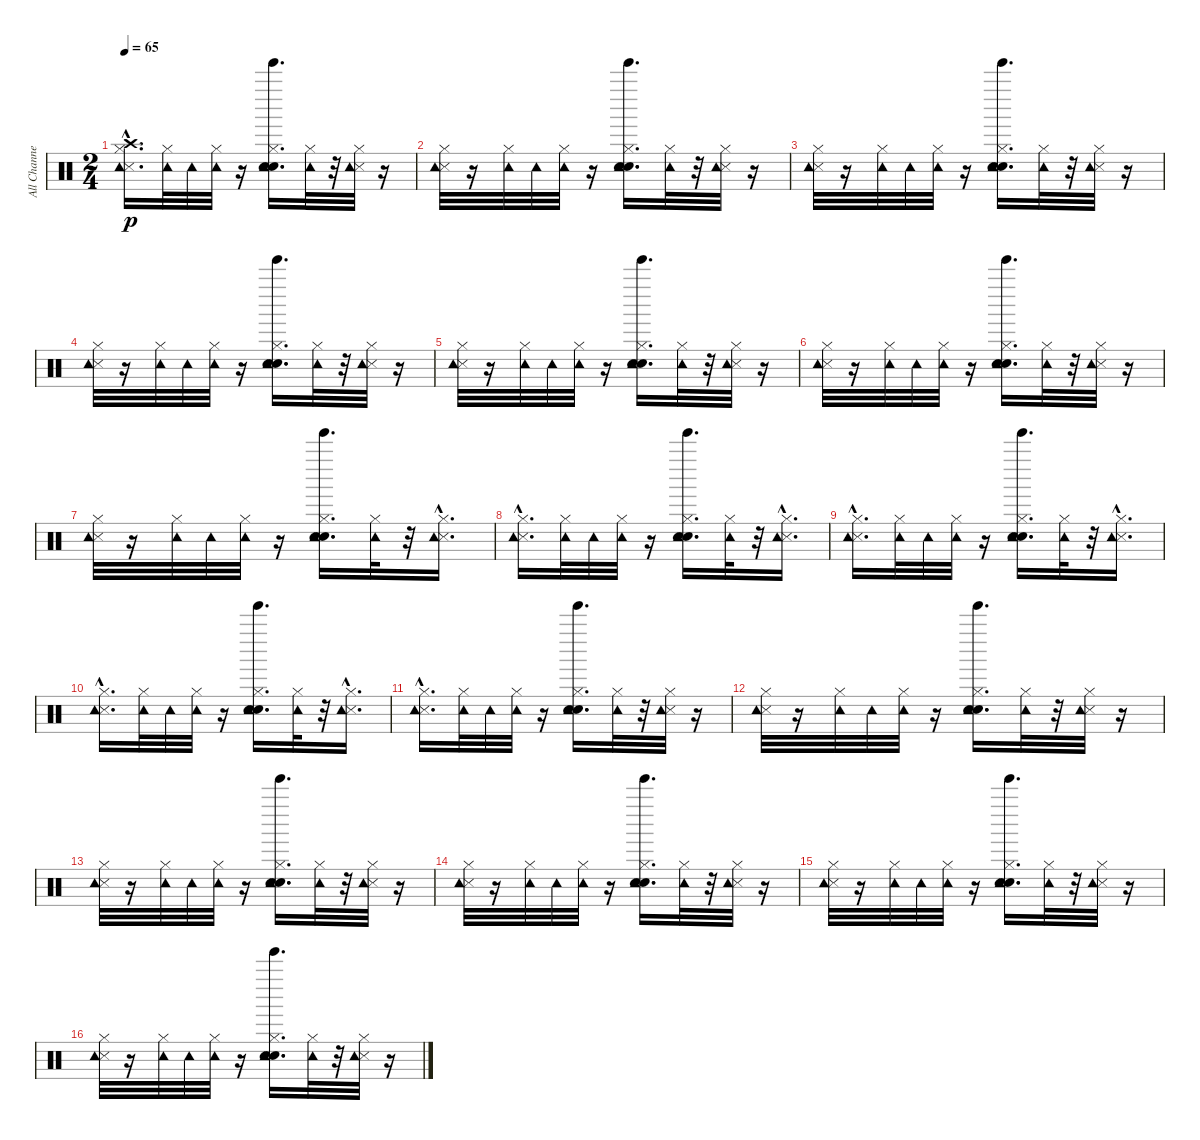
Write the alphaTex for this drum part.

\track ("All Channels*merged" "All Channe") {instrument percussion}
\staff {score}
\articulation defaults
\ts (2 4)
\tempo 65
\clef neutral
\ks c
("Metronome (hit)"{hac} "Hi-Hat (closed)" "Crash high (hit)" "Tambourine (hit)").16{d dy p} ("Hi-Hat (closed)" "Tambourine (hit)").32 "Tambourine (hit)".32 ("Hi-Hat (closed)" "Tambourine (hit)").32 r.16 ("Metronome (bell)" "Electric Snare (hit)" "Hi-Hat (closed)" "Tambourine (hit)" "Tinkle Bell (hit)").16{d} ("Hi-Hat (closed)" "Tambourine (hit)").32 r.32 ("Metronome (hit)" "Hi-Hat (closed)" "Tambourine (hit)").32 r.16 |
("Metronome (hit)" "Hi-Hat (closed)" "Tambourine (hit)").32 r.16 ("Hi-Hat (closed)" "Tambourine (hit)").32 "Tambourine (hit)".32 ("Hi-Hat (closed)" "Tambourine (hit)").32 r.16 ("Metronome (bell)" "Electric Snare (hit)" "Hi-Hat (closed)" "Tambourine (hit)" "Tinkle Bell (hit)").16{d} ("Hi-Hat (closed)" "Tambourine (hit)").32 r.32 ("Metronome (hit)" "Hi-Hat (closed)" "Tambourine (hit)").32 r.16 |
("Metronome (hit)" "Hi-Hat (closed)" "Tambourine (hit)").32 r.16 ("Hi-Hat (closed)" "Tambourine (hit)").32 "Tambourine (hit)".32 ("Hi-Hat (closed)" "Tambourine (hit)").32 r.16 ("Metronome (bell)" "Electric Snare (hit)" "Hi-Hat (closed)" "Tambourine (hit)" "Tinkle Bell (hit)").16{d} ("Hi-Hat (closed)" "Tambourine (hit)").32 r.32 ("Metronome (hit)" "Hi-Hat (closed)" "Tambourine (hit)").32 r.16 |
("Metronome (hit)" "Hi-Hat (closed)" "Tambourine (hit)").32 r.16 ("Hi-Hat (closed)" "Tambourine (hit)").32 "Tambourine (hit)".32 ("Hi-Hat (closed)" "Tambourine (hit)").32 r.16 ("Metronome (bell)" "Electric Snare (hit)" "Hi-Hat (closed)" "Tambourine (hit)" "Tinkle Bell (hit)").16{d} ("Hi-Hat (closed)" "Tambourine (hit)").32 r.32 ("Metronome (hit)" "Hi-Hat (closed)" "Tambourine (hit)").32 r.16 |
("Metronome (hit)" "Hi-Hat (closed)" "Tambourine (hit)").32 r.16 ("Hi-Hat (closed)" "Tambourine (hit)").32 "Tambourine (hit)".32 ("Hi-Hat (closed)" "Tambourine (hit)").32 r.16 ("Metronome (bell)" "Electric Snare (hit)" "Hi-Hat (closed)" "Tambourine (hit)" "Tinkle Bell (hit)").16{d} ("Hi-Hat (closed)" "Tambourine (hit)").32 r.32 ("Metronome (hit)" "Hi-Hat (closed)" "Tambourine (hit)").32 r.16 |
("Metronome (hit)" "Hi-Hat (closed)" "Tambourine (hit)").32 r.16 ("Hi-Hat (closed)" "Tambourine (hit)").32 "Tambourine (hit)".32 ("Hi-Hat (closed)" "Tambourine (hit)").32 r.16 ("Metronome (bell)" "Electric Snare (hit)" "Hi-Hat (closed)" "Tambourine (hit)" "Tinkle Bell (hit)").16{d} ("Hi-Hat (closed)" "Tambourine (hit)").32 r.32 ("Metronome (hit)" "Hi-Hat (closed)" "Tambourine (hit)").32 r.16 |
("Metronome (hit)" "Hi-Hat (closed)" "Tambourine (hit)").32 r.16 ("Hi-Hat (closed)" "Tambourine (hit)").32 "Tambourine (hit)".32 ("Hi-Hat (closed)" "Tambourine (hit)").32 r.16 ("Metronome (bell)" "Electric Snare (hit)" "Hi-Hat (closed)" "Tambourine (hit)" "Tinkle Bell (hit)").16{d} ("Hi-Hat (closed)" "Tambourine (hit)").32 r.32 ("Metronome (hit)" "Hi-Hat (closed)"{hac} "Tambourine (hit)").16{d} |
("Metronome (hit)" "Hi-Hat (closed)"{hac} "Tambourine (hit)").16{d} ("Hi-Hat (closed)" "Tambourine (hit)").32 "Tambourine (hit)".32 ("Hi-Hat (closed)" "Tambourine (hit)").32 r.16 ("Metronome (bell)" "Electric Snare (hit)" "Hi-Hat (closed)" "Tambourine (hit)" "Tinkle Bell (hit)").16{d} ("Hi-Hat (closed)" "Tambourine (hit)").32 r.32 ("Metronome (hit)"{hac} "Hi-Hat (closed)" "Tambourine (hit)").16{d} |
("Metronome (hit)"{hac} "Hi-Hat (closed)" "Tambourine (hit)").16{d} ("Hi-Hat (closed)" "Tambourine (hit)").32 "Tambourine (hit)".32 ("Hi-Hat (closed)" "Tambourine (hit)").32 r.16 ("Metronome (bell)" "Electric Snare (hit)" "Hi-Hat (closed)" "Tambourine (hit)" "Tinkle Bell (hit)").16{d} ("Hi-Hat (closed)" "Tambourine (hit)").32 r.32 ("Metronome (hit)" "Hi-Hat (closed)"{hac} "Tambourine (hit)").16{d} |
("Metronome (hit)" "Hi-Hat (closed)"{hac} "Tambourine (hit)").16{d} ("Hi-Hat (closed)" "Tambourine (hit)").32 "Tambourine (hit)".32 ("Hi-Hat (closed)" "Tambourine (hit)").32 r.16 ("Metronome (bell)" "Electric Snare (hit)" "Hi-Hat (closed)" "Tambourine (hit)" "Tinkle Bell (hit)").16{d} ("Hi-Hat (closed)" "Tambourine (hit)").32 r.32 ("Metronome (hit)" "Hi-Hat (closed)"{hac} "Tambourine (hit)").16{d} |
("Metronome (hit)" "Hi-Hat (closed)"{hac} "Tambourine (hit)").16{d} ("Hi-Hat (closed)" "Tambourine (hit)").32 "Tambourine (hit)".32 ("Hi-Hat (closed)" "Tambourine (hit)").32 r.16 ("Metronome (bell)" "Electric Snare (hit)" "Hi-Hat (closed)" "Tambourine (hit)" "Tinkle Bell (hit)").16{d} ("Hi-Hat (closed)" "Tambourine (hit)").32 r.32 ("Metronome (hit)" "Hi-Hat (closed)" "Tambourine (hit)").32 r.16 |
("Metronome (hit)" "Hi-Hat (closed)" "Tambourine (hit)").32 r.16 ("Hi-Hat (closed)" "Tambourine (hit)").32 "Tambourine (hit)".32 ("Hi-Hat (closed)" "Tambourine (hit)").32 r.16 ("Metronome (bell)" "Electric Snare (hit)" "Hi-Hat (closed)" "Tambourine (hit)" "Tinkle Bell (hit)").16{d} ("Hi-Hat (closed)" "Tambourine (hit)").32 r.32 ("Metronome (hit)" "Hi-Hat (closed)" "Tambourine (hit)").32 r.16 |
("Metronome (hit)" "Hi-Hat (closed)" "Tambourine (hit)").32 r.16 ("Hi-Hat (closed)" "Tambourine (hit)").32 "Tambourine (hit)".32 ("Hi-Hat (closed)" "Tambourine (hit)").32 r.16 ("Metronome (bell)" "Electric Snare (hit)" "Hi-Hat (closed)" "Tambourine (hit)" "Tinkle Bell (hit)").16{d} ("Hi-Hat (closed)" "Tambourine (hit)").32 r.32 ("Metronome (hit)" "Hi-Hat (closed)" "Tambourine (hit)").32 r.16 |
("Metronome (hit)" "Hi-Hat (closed)" "Tambourine (hit)").32 r.16 ("Hi-Hat (closed)" "Tambourine (hit)").32 "Tambourine (hit)".32 ("Hi-Hat (closed)" "Tambourine (hit)").32 r.16 ("Metronome (bell)" "Electric Snare (hit)" "Hi-Hat (closed)" "Tambourine (hit)" "Tinkle Bell (hit)").16{d} ("Hi-Hat (closed)" "Tambourine (hit)").32 r.32 ("Metronome (hit)" "Hi-Hat (closed)" "Tambourine (hit)").32 r.16 |
("Metronome (hit)" "Hi-Hat (closed)" "Tambourine (hit)").32 r.16 ("Hi-Hat (closed)" "Tambourine (hit)").32 "Tambourine (hit)".32 ("Hi-Hat (closed)" "Tambourine (hit)").32 r.16 ("Metronome (bell)" "Electric Snare (hit)" "Hi-Hat (closed)" "Tambourine (hit)" "Tinkle Bell (hit)").16{d} ("Hi-Hat (closed)" "Tambourine (hit)").32 r.32 ("Metronome (hit)" "Hi-Hat (closed)" "Tambourine (hit)").32 r.16 |
("Metronome (hit)" "Hi-Hat (closed)" "Tambourine (hit)").32 r.16 ("Hi-Hat (closed)" "Tambourine (hit)").32 "Tambourine (hit)".32 ("Hi-Hat (closed)" "Tambourine (hit)").32 r.16 ("Metronome (bell)" "Electric Snare (hit)" "Hi-Hat (closed)" "Tambourine (hit)" "Tinkle Bell (hit)").16{d} ("Hi-Hat (closed)" "Tambourine (hit)").32 r.32 ("Metronome (hit)" "Hi-Hat (closed)" "Tambourine (hit)").32 r.16
